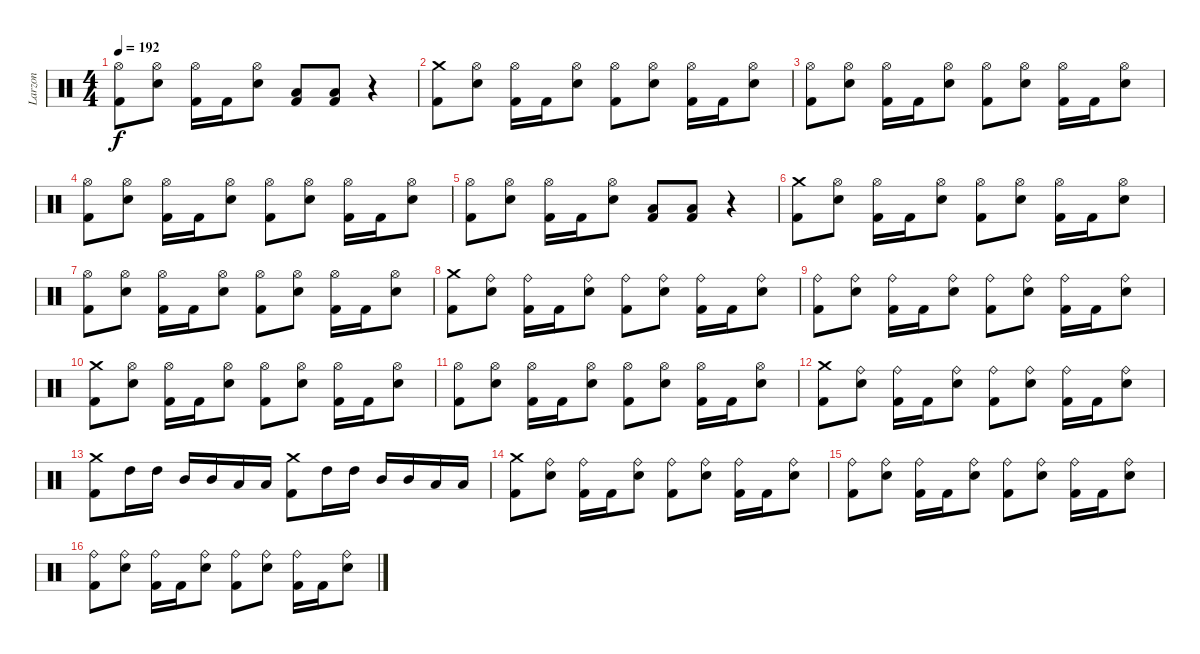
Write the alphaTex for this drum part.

\track ("Larzon" "Larzon") {instrument percussion}
\staff {score}
\articulation defaults
\ts (4 4)
\tempo 192
\clef neutral
\ks c
("Hi-Hat (open)" "Kick (hit) 2").8{dy f} ("Hi-Hat (open)" "Electric Snare (hit)").8 ("Hi-Hat (open)" "Kick (hit) 2").16 "Kick (hit) 2".16 ("Hi-Hat (open)" "Electric Snare (hit)").8 ("Low Tom (hit)" "Kick (hit) 2").8 ("Low Tom (hit)" "Kick (hit) 2").8 r.4 |
("Crash medium (hit)" "Kick (hit) 2").8 ("Hi-Hat (open)" "Electric Snare (hit)").8 ("Hi-Hat (open)" "Kick (hit) 2").16 "Kick (hit) 2".16 ("Hi-Hat (open)" "Electric Snare (hit)").8 ("Hi-Hat (open)" "Kick (hit) 2").8 ("Hi-Hat (open)" "Electric Snare (hit)").8 ("Hi-Hat (open)" "Kick (hit) 2").16 "Kick (hit) 2".16 ("Hi-Hat (open)" "Electric Snare (hit)").8 |
("Hi-Hat (open)" "Kick (hit) 2").8 ("Hi-Hat (open)" "Electric Snare (hit)").8 ("Hi-Hat (open)" "Kick (hit) 2").16 "Kick (hit) 2".16 ("Hi-Hat (open)" "Electric Snare (hit)").8 ("Hi-Hat (open)" "Kick (hit) 2").8 ("Hi-Hat (open)" "Electric Snare (hit)").8 ("Hi-Hat (open)" "Kick (hit) 2").16 "Kick (hit) 2".16 ("Hi-Hat (open)" "Electric Snare (hit)").8 |
("Hi-Hat (open)" "Kick (hit) 2").8 ("Hi-Hat (open)" "Electric Snare (hit)").8 ("Hi-Hat (open)" "Kick (hit) 2").16 "Kick (hit) 2".16 ("Hi-Hat (open)" "Electric Snare (hit)").8 ("Hi-Hat (open)" "Kick (hit) 2").8 ("Hi-Hat (open)" "Electric Snare (hit)").8 ("Hi-Hat (open)" "Kick (hit) 2").16 "Kick (hit) 2".16 ("Hi-Hat (open)" "Electric Snare (hit)").8 |
("Hi-Hat (open)" "Kick (hit) 2").8 ("Hi-Hat (open)" "Electric Snare (hit)").8 ("Hi-Hat (open)" "Kick (hit) 2").16 "Kick (hit) 2".16 ("Hi-Hat (open)" "Electric Snare (hit)").8 ("Low Tom (hit)" "Kick (hit) 2").8 ("Low Tom (hit)" "Kick (hit) 2").8 r.4 |
("Crash medium (hit)" "Kick (hit) 2").8 ("Hi-Hat (open)" "Electric Snare (hit)").8 ("Hi-Hat (open)" "Kick (hit) 2").16 "Kick (hit) 2".16 ("Hi-Hat (open)" "Electric Snare (hit)").8 ("Hi-Hat (open)" "Kick (hit) 2").8 ("Hi-Hat (open)" "Electric Snare (hit)").8 ("Hi-Hat (open)" "Kick (hit) 2").16 "Kick (hit) 2".16 ("Hi-Hat (open)" "Electric Snare (hit)").8 |
("Hi-Hat (open)" "Kick (hit) 2").8 ("Hi-Hat (open)" "Electric Snare (hit)").8 ("Hi-Hat (open)" "Kick (hit) 2").16 "Kick (hit) 2".16 ("Hi-Hat (open)" "Electric Snare (hit)").8 ("Hi-Hat (open)" "Kick (hit) 2").8 ("Hi-Hat (open)" "Electric Snare (hit)").8 ("Hi-Hat (open)" "Kick (hit) 2").16 "Kick (hit) 2".16 ("Hi-Hat (open)" "Electric Snare (hit)").8 |
("Crash medium (hit)" "Kick (hit) 2").8 ("Ride (bell)" "Electric Snare (hit)").8 ("Ride (bell)" "Kick (hit) 2").16 "Kick (hit) 2".16 ("Ride (bell)" "Electric Snare (hit)").8 ("Ride (bell)" "Kick (hit) 2").8 ("Ride (bell)" "Electric Snare (hit)").8 ("Ride (bell)" "Kick (hit) 2").16 "Kick (hit) 2".16 ("Ride (bell)" "Electric Snare (hit)").8 |
("Ride (bell)" "Kick (hit) 2").8 ("Ride (bell)" "Electric Snare (hit)").8 ("Ride (bell)" "Kick (hit) 2").16 "Kick (hit) 2".16 ("Ride (bell)" "Electric Snare (hit)").8 ("Ride (bell)" "Kick (hit) 2").8 ("Ride (bell)" "Electric Snare (hit)").8 ("Ride (bell)" "Kick (hit) 2").16 "Kick (hit) 2".16 ("Ride (bell)" "Electric Snare (hit)").8 |
("Crash medium (hit)" "Kick (hit) 2").8 ("Hi-Hat (open)" "Electric Snare (hit)").8 ("Hi-Hat (open)" "Kick (hit) 2").16 "Kick (hit) 2".16 ("Hi-Hat (open)" "Electric Snare (hit)").8 ("Hi-Hat (open)" "Kick (hit) 2").8 ("Hi-Hat (open)" "Electric Snare (hit)").8 ("Hi-Hat (open)" "Kick (hit) 2").16 "Kick (hit) 2".16 ("Hi-Hat (open)" "Electric Snare (hit)").8 |
("Hi-Hat (open)" "Kick (hit) 2").8 ("Hi-Hat (open)" "Electric Snare (hit)").8 ("Hi-Hat (open)" "Kick (hit) 2").16 "Kick (hit) 2".16 ("Hi-Hat (open)" "Electric Snare (hit)").8 ("Hi-Hat (open)" "Kick (hit) 2").8 ("Hi-Hat (open)" "Electric Snare (hit)").8 ("Hi-Hat (open)" "Kick (hit) 2").16 "Kick (hit) 2".16 ("Hi-Hat (open)" "Electric Snare (hit)").8 |
("Crash medium (hit)" "Kick (hit) 2").8 ("Ride (bell)" "Electric Snare (hit)").8 ("Ride (bell)" "Kick (hit) 2").16 "Kick (hit) 2".16 ("Ride (bell)" "Electric Snare (hit)").8 ("Ride (bell)" "Kick (hit) 2").8 ("Ride (bell)" "Electric Snare (hit)").8 ("Ride (bell)" "Kick (hit) 2").16 "Kick (hit) 2".16 ("Ride (bell)" "Electric Snare (hit)").8 |
("Crash medium (hit)" "Kick (hit) 2").8 "High Tom (hit)".16 "High Tom (hit)".16 "Mid Tom (hit)".16 "Mid Tom (hit)".16 "Low Tom (hit)".16 "Low Tom (hit)".16 ("Crash medium (hit)" "Kick (hit) 2").8 "High Tom (hit)".16 "High Tom (hit)".16 "Mid Tom (hit)".16 "Mid Tom (hit)".16 "Low Tom (hit)".16 "Low Tom (hit)".16 |
("Crash medium (hit)" "Kick (hit) 2").8 ("Ride (bell)" "Electric Snare (hit)").8 ("Ride (bell)" "Kick (hit) 2").16 "Kick (hit) 2".16 ("Ride (bell)" "Electric Snare (hit)").8 ("Ride (bell)" "Kick (hit) 2").8 ("Ride (bell)" "Electric Snare (hit)").8 ("Ride (bell)" "Kick (hit) 2").16 "Kick (hit) 2".16 ("Ride (bell)" "Electric Snare (hit)").8 |
("Ride (bell)" "Kick (hit) 2").8 ("Ride (bell)" "Electric Snare (hit)").8 ("Ride (bell)" "Kick (hit) 2").16 "Kick (hit) 2".16 ("Ride (bell)" "Electric Snare (hit)").8 ("Ride (bell)" "Kick (hit) 2").8 ("Ride (bell)" "Electric Snare (hit)").8 ("Ride (bell)" "Kick (hit) 2").16 "Kick (hit) 2".16 ("Ride (bell)" "Electric Snare (hit)").8 |
("Ride (bell)" "Kick (hit) 2").8 ("Ride (bell)" "Electric Snare (hit)").8 ("Ride (bell)" "Kick (hit) 2").16 "Kick (hit) 2".16 ("Ride (bell)" "Electric Snare (hit)").8 ("Ride (bell)" "Kick (hit) 2").8 ("Ride (bell)" "Electric Snare (hit)").8 ("Ride (bell)" "Kick (hit) 2").16 "Kick (hit) 2".16 ("Ride (bell)" "Electric Snare (hit)").8
